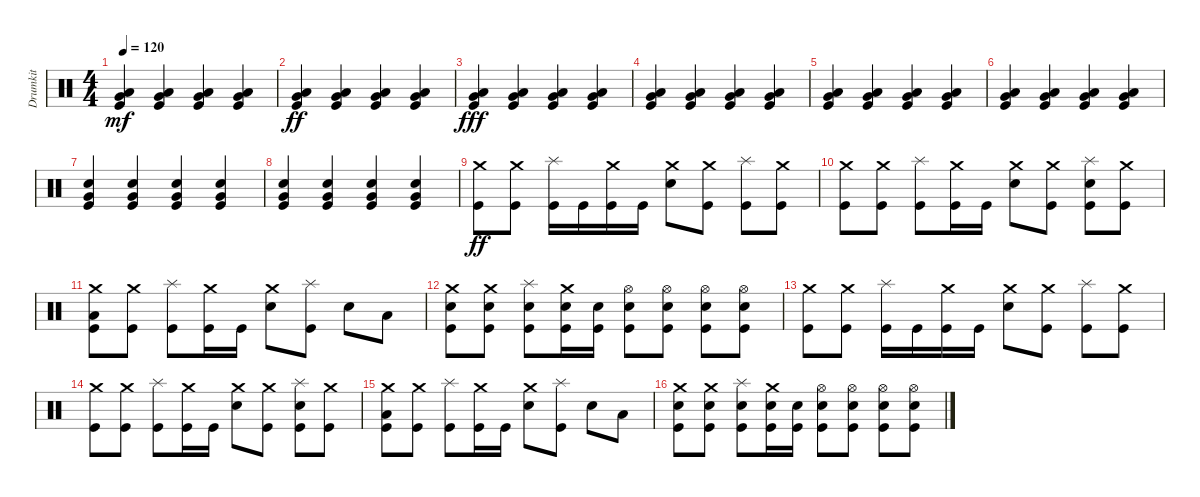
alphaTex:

\track ("Drumkit" "Drumkit") {instrument percussion}
\staff {score}
\articulation defaults
\ts (4 4)
\tempo 120
\clef neutral
\ks c
("Very Low Tom (hit)" "Kick (hit)" "Low Tom (hit)").4{dy mf} ("Kick (hit)" "Very Low Tom (hit)" "Low Tom (hit)").4 ("Kick (hit)" "Very Low Tom (hit)" "Low Tom (hit)").4 ("Kick (hit)" "Very Low Tom (hit)" "Low Tom (hit)").4 |
("Very Low Tom (hit)" "Kick (hit)" "Low Tom (hit)").4{dy ff} ("Kick (hit)" "Low Tom (hit)" "Very Low Tom (hit)").4 ("Kick (hit)" "Low Tom (hit)" "Very Low Tom (hit)").4 ("Kick (hit)" "Very Low Tom (hit)" "Low Tom (hit)").4 |
("Very Low Tom (hit)" "Kick (hit)" "Low Tom (hit)").4{dy fff} ("Kick (hit)" "Low Tom (hit)" "Very Low Tom (hit)").4 ("Kick (hit)" "Low Tom (hit)" "Very Low Tom (hit)").4 ("Kick (hit)" "Very Low Tom (hit)" "Low Tom (hit)").4 |
("Very Low Tom (hit)" "Kick (hit)" "Low Tom (hit)").4 ("Kick (hit)" "Low Tom (hit)" "Very Low Tom (hit)").4 ("Kick (hit)" "Low Tom (hit)" "Very Low Tom (hit)").4 ("Kick (hit)" "Very Low Tom (hit)" "Low Tom (hit)").4 |
("Very Low Tom (hit)" "Kick (hit)" "Low Tom (hit)").4 ("Kick (hit)" "Low Tom (hit)" "Very Low Tom (hit)").4 ("Kick (hit)" "Low Tom (hit)" "Very Low Tom (hit)").4 ("Kick (hit)" "Very Low Tom (hit)" "Low Tom (hit)").4 |
("Very Low Tom (hit)" "Kick (hit)" "Low Tom (hit)").4 ("Kick (hit)" "Low Tom (hit)" "Very Low Tom (hit)").4 ("Kick (hit)" "Low Tom (hit)" "Very Low Tom (hit)").4 ("Kick (hit)" "Very Low Tom (hit)" "Low Tom (hit)").4 |
("Very Low Tom (hit)" "Kick (hit)" "Snare (hit) 2").4 ("Kick (hit)" "Very Low Tom (hit)" "Snare (hit) 2").4 ("Kick (hit)" "Very Low Tom (hit)" "Snare (hit) 2").4 ("Kick (hit)" "Very Low Tom (hit)" "Snare (hit) 2").4 |
("Very Low Tom (hit)" "Kick (hit)" "Snare (hit) 2").4 ("Kick (hit)" "Very Low Tom (hit)" "Snare (hit) 2").4 ("Kick (hit)" "Very Low Tom (hit)" "Snare (hit) 2").4 ("Kick (hit)" "Very Low Tom (hit)" "Snare (hit) 2").4 |
("Crash medium (hit)" "Kick (hit)").8{dy ff} ("Kick (hit)" "Crash medium (hit)").8 ("Kick (hit)" "Splash (hit)").16 "Kick (hit)".16 ("Crash medium (hit)" "Kick (hit)").16 "Kick (hit)".16 ("Crash medium (hit)" "Snare (hit) 2").8 ("Kick (hit)" "Crash medium (hit)").8 ("Kick (hit)" "Splash (hit)").8 ("Kick (hit)" "Crash medium (hit)").8 |
("Crash medium (hit)" "Kick (hit)").8 ("Kick (hit)" "Crash medium (hit)").8 ("Kick (hit)" "Splash (hit)").8 ("Crash medium (hit)" "Kick (hit)").16 "Kick (hit)".16 ("Crash medium (hit)" "Snare (hit) 2").8 ("Kick (hit)" "Crash medium (hit)").8 ("Splash (hit)" "Kick (hit)" "Snare (hit) 2").8 ("Crash medium (hit)" "Kick (hit)").8 |
("Crash medium (hit)" "Kick (hit)" "Low Tom (hit)").8 ("Kick (hit)" "Crash medium (hit)").8 ("Kick (hit)" "Splash (hit)").8 ("Crash medium (hit)" "Kick (hit)").16 "Kick (hit)".16 ("Crash medium (hit)" "Snare (hit) 2").8 ("Kick (hit)" "Splash (hit)").8 "Snare (hit) 2".8 "Low Tom (hit)".8 |
("Crash medium (hit)" "Kick (hit)" "Snare (hit) 2").8 ("Kick (hit)" "Crash medium (hit)" "Snare (hit) 2").8 ("Kick (hit)" "Splash (hit)" "Snare (hit) 2").8 ("Crash medium (hit)" "Kick (hit)" "Snare (hit) 2").16 ("Kick (hit)" "Snare (hit) 2").16 ("Snare (hit) 2" "Hi-Hat (open)" "Kick (hit)").8 ("Kick (hit)" "Snare (hit) 2" "Hi-Hat (open)").8 ("Snare (hit) 2" "Hi-Hat (open)" "Kick (hit)").8 ("Snare (hit) 2" "Hi-Hat (open)" "Kick (hit)").8 |
("Crash medium (hit)" "Kick (hit)").8 ("Kick (hit)" "Crash medium (hit)").8 ("Kick (hit)" "Splash (hit)").16 "Kick (hit)".16 ("Crash medium (hit)" "Kick (hit)").16 "Kick (hit)".16 ("Crash medium (hit)" "Snare (hit) 2").8 ("Kick (hit)" "Crash medium (hit)").8 ("Kick (hit)" "Splash (hit)").8 ("Kick (hit)" "Crash medium (hit)").8 |
("Crash medium (hit)" "Kick (hit)").8 ("Kick (hit)" "Crash medium (hit)").8 ("Kick (hit)" "Splash (hit)").8 ("Crash medium (hit)" "Kick (hit)").16 "Kick (hit)".16 ("Crash medium (hit)" "Snare (hit) 2").8 ("Kick (hit)" "Crash medium (hit)").8 ("Splash (hit)" "Kick (hit)" "Snare (hit) 2").8 ("Crash medium (hit)" "Kick (hit)").8 |
("Crash medium (hit)" "Kick (hit)" "Low Tom (hit)").8 ("Kick (hit)" "Crash medium (hit)").8 ("Kick (hit)" "Splash (hit)").8 ("Crash medium (hit)" "Kick (hit)").16 "Kick (hit)".16 ("Crash medium (hit)" "Snare (hit) 2").8 ("Kick (hit)" "Splash (hit)").8 "Snare (hit) 2".8 "Low Tom (hit)".8 |
("Crash medium (hit)" "Kick (hit)" "Snare (hit) 2").8 ("Kick (hit)" "Crash medium (hit)" "Snare (hit) 2").8 ("Kick (hit)" "Splash (hit)" "Snare (hit) 2").8 ("Crash medium (hit)" "Kick (hit)" "Snare (hit) 2").16 ("Kick (hit)" "Snare (hit) 2").16 ("Snare (hit) 2" "Hi-Hat (open)" "Kick (hit)").8 ("Kick (hit)" "Snare (hit) 2" "Hi-Hat (open)").8 ("Snare (hit) 2" "Hi-Hat (open)" "Kick (hit)").8 ("Snare (hit) 2" "Hi-Hat (open)" "Kick (hit)").8
